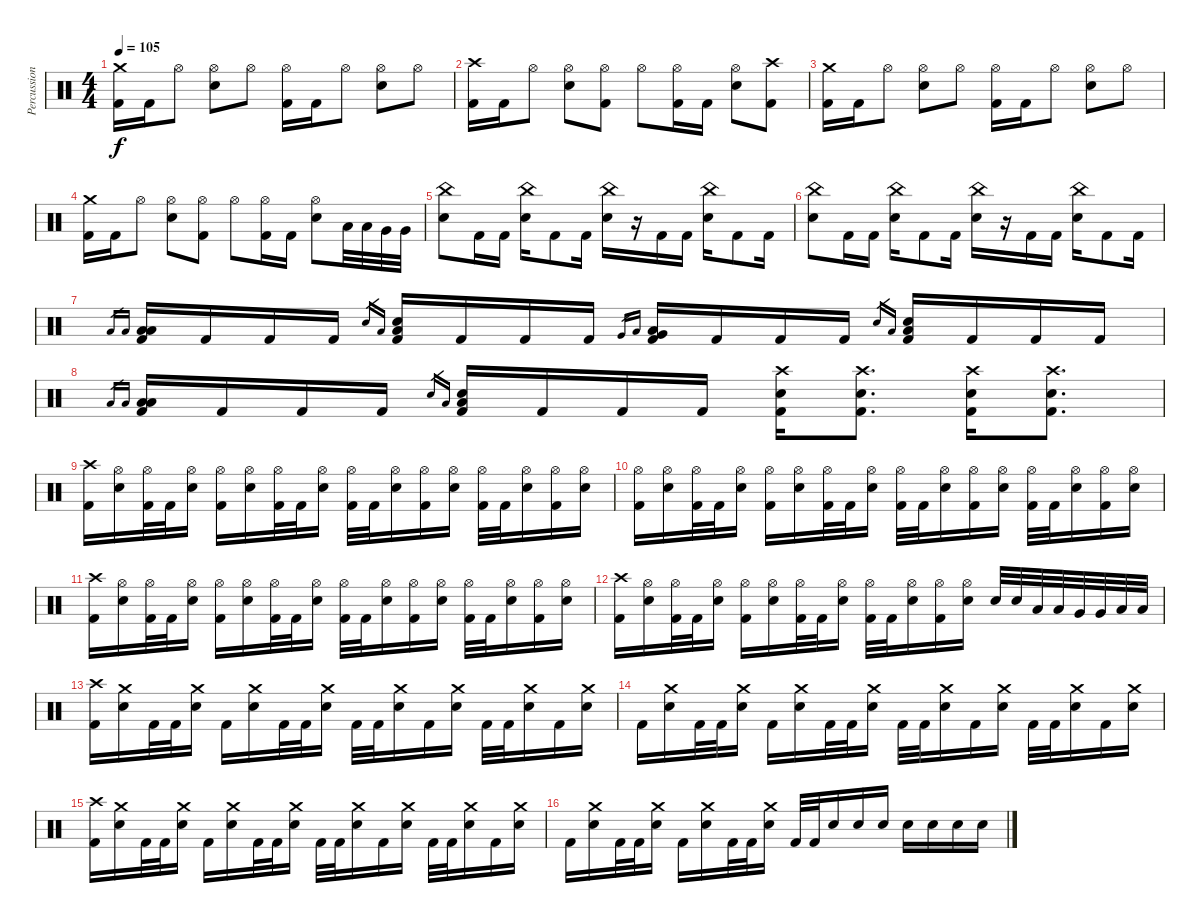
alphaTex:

\track ("Percussions" "Percussion") {instrument percussion}
\staff {score}
\articulation defaults
\ts (4 4)
\tempo 105
\clef neutral
\ks c
("Crash medium (hit)" "Kick (hit) 2").16{dy f} "Kick (hit) 2".16 "Hi-Hat (open)".8 ("Hi-Hat (open)" "Electric Snare (hit)").8 "Hi-Hat (open)".8 ("Hi-Hat (open)" "Kick (hit) 2").16 "Kick (hit) 2".16 "Hi-Hat (open)".8 ("Hi-Hat (open)" "Electric Snare (hit)").8 "Hi-Hat (open)".8 |
("Crash high (hit)" "Kick (hit) 2").16 "Kick (hit) 2".16 "Hi-Hat (open)".8 ("Hi-Hat (open)" "Electric Snare (hit)").8 ("Hi-Hat (open)" "Kick (hit) 2").8 "Hi-Hat (open)".8 ("Hi-Hat (open)" "Kick (hit) 2").16 "Kick (hit) 2".16 ("Hi-Hat (open)" "Electric Snare (hit)").8 ("Crash high (hit)" "Kick (hit) 2").8 |
("Crash medium (hit)" "Kick (hit) 2").16 "Kick (hit) 2".16 "Hi-Hat (open)".8 ("Hi-Hat (open)" "Electric Snare (hit)").8 "Hi-Hat (open)".8 ("Hi-Hat (open)" "Kick (hit) 2").16 "Kick (hit) 2".16 "Hi-Hat (open)".8 ("Hi-Hat (open)" "Electric Snare (hit)").8 "Hi-Hat (open)".8 |
("Crash medium (hit)" "Kick (hit) 2").16 "Kick (hit) 2".16 "Hi-Hat (open)".8 ("Hi-Hat (open)" "Electric Snare (hit)").8 ("Hi-Hat (open)" "Kick (hit) 2").8 "Hi-Hat (open)".8 ("Hi-Hat (open)" "Kick (hit) 2").16 "Kick (hit) 2".16 ("Hi-Hat (open)" "Electric Snare (hit)").8 "Low Tom (hit)".32 "Low Tom (hit)".32 "Very Low Tom (hit)".32 "Very Low Tom (hit)".32 |
("China (hit)" "Electric Snare (hit)").8 "Kick (hit) 2".16 "Kick (hit) 2".16 ("China (hit)" "Electric Snare (hit)").16 "Kick (hit) 2".8 "Kick (hit) 2".16 ("China (hit)" "Electric Snare (hit)").16 r.16 "Kick (hit) 2".16 "Kick (hit) 2".16 ("China (hit)" "Electric Snare (hit)").16 "Kick (hit) 2".8 "Kick (hit) 2".16 |
("China (hit)" "Electric Snare (hit)").8 "Kick (hit) 2".16 "Kick (hit) 2".16 ("China (hit)" "Electric Snare (hit)").16 "Kick (hit) 2".8 "Kick (hit) 2".16 ("China (hit)" "Electric Snare (hit)").16 r.16 "Kick (hit) 2".16 "Kick (hit) 2".16 ("China (hit)" "Electric Snare (hit)").16 "Kick (hit) 2".8 "Kick (hit) 2".16 |
"Low Tom (hit)".16{gr} "Low Floor Tom (hit)".16{gr} ("Low Tom (hit)" "Low Floor Tom (hit)" "Kick (hit) 2").16 "Kick (hit) 2".16 "Kick (hit) 2".16 "Kick (hit) 2".16 "Electric Snare (hit)".16{gr} "Low Floor Tom (hit)".16{gr} ("Electric Snare (hit)" "Low Floor Tom (hit)" "Kick (hit) 2").16 "Kick (hit) 2".16 "Kick (hit) 2".16 "Kick (hit) 2".16 "Very Low Tom (hit)".16{gr} "Low Floor Tom (hit)".16{gr} ("Very Low Tom (hit)" "Low Floor Tom (hit)" "Kick (hit) 2").16 "Kick (hit) 2".16 "Kick (hit) 2".16 "Kick (hit) 2".16 "Electric Snare (hit)".16{gr} "Low Floor Tom (hit)".16{gr} ("Electric Snare (hit)" "Low Floor Tom (hit)" "Kick (hit) 2").16 "Kick (hit) 2".16 "Kick (hit) 2".16 "Kick (hit) 2".16 |
"Low Tom (hit)".16{gr} "Low Floor Tom (hit)".16{gr} ("Low Tom (hit)" "Low Floor Tom (hit)" "Kick (hit) 2").16 "Kick (hit) 2".16 "Kick (hit) 2".16 "Kick (hit) 2".16 "Electric Snare (hit)".16{gr} "Low Floor Tom (hit)".16{gr} ("Electric Snare (hit)" "Low Floor Tom (hit)" "Kick (hit) 2").16 "Kick (hit) 2".16 "Kick (hit) 2".16 "Kick (hit) 2".16 ("Crash high (hit)" "Electric Snare (hit)" "Kick (hit) 2").16 ("Crash high (hit)" "Electric Snare (hit)" "Kick (hit) 2").8{d} ("Crash high (hit)" "Electric Snare (hit)" "Kick (hit) 2").16 ("Crash high (hit)" "Electric Snare (hit)" "Kick (hit) 2").8{d} |
("Crash high (hit)" "Kick (hit) 2").16 ("Hi-Hat (open)" "Electric Snare (hit)").16 ("Hi-Hat (open)" "Kick (hit) 2").32 "Kick (hit) 2".32 ("Hi-Hat (open)" "Electric Snare (hit)").16 ("Hi-Hat (open)" "Kick (hit) 2").16 ("Hi-Hat (open)" "Electric Snare (hit)").16 ("Hi-Hat (open)" "Kick (hit) 2").32 "Kick (hit) 2".32 ("Hi-Hat (open)" "Electric Snare (hit)").16 ("Hi-Hat (open)" "Kick (hit) 2").32 "Kick (hit) 2".32 ("Hi-Hat (open)" "Electric Snare (hit)").16 ("Hi-Hat (open)" "Kick (hit) 2").16 ("Hi-Hat (open)" "Electric Snare (hit)").16 ("Hi-Hat (open)" "Kick (hit) 2").32 "Kick (hit) 2".32 ("Hi-Hat (open)" "Electric Snare (hit)").16 ("Hi-Hat (open)" "Kick (hit) 2").16 ("Hi-Hat (open)" "Electric Snare (hit)").16 |
("Hi-Hat (open)" "Kick (hit) 2").16 ("Hi-Hat (open)" "Electric Snare (hit)").16 ("Hi-Hat (open)" "Kick (hit) 2").32 "Kick (hit) 2".32 ("Hi-Hat (open)" "Electric Snare (hit)").16 ("Hi-Hat (open)" "Kick (hit) 2").16 ("Hi-Hat (open)" "Electric Snare (hit)").16 ("Hi-Hat (open)" "Kick (hit) 2").32 "Kick (hit) 2".32 ("Hi-Hat (open)" "Electric Snare (hit)").16 ("Hi-Hat (open)" "Kick (hit) 2").32 "Kick (hit) 2".32 ("Hi-Hat (open)" "Electric Snare (hit)").16 ("Hi-Hat (open)" "Kick (hit) 2").16 ("Hi-Hat (open)" "Electric Snare (hit)").16 ("Hi-Hat (open)" "Kick (hit) 2").32 "Kick (hit) 2".32 ("Hi-Hat (open)" "Electric Snare (hit)").16 ("Hi-Hat (open)" "Kick (hit) 2").16 ("Hi-Hat (open)" "Electric Snare (hit)").16 |
("Crash high (hit)" "Kick (hit) 2").16 ("Hi-Hat (open)" "Electric Snare (hit)").16 ("Hi-Hat (open)" "Kick (hit) 2").32 "Kick (hit) 2".32 ("Hi-Hat (open)" "Electric Snare (hit)").16 ("Hi-Hat (open)" "Kick (hit) 2").16 ("Hi-Hat (open)" "Electric Snare (hit)").16 ("Hi-Hat (open)" "Kick (hit) 2").32 "Kick (hit) 2".32 ("Hi-Hat (open)" "Electric Snare (hit)").16 ("Hi-Hat (open)" "Kick (hit) 2").32 "Kick (hit) 2".32 ("Hi-Hat (open)" "Electric Snare (hit)").16 ("Hi-Hat (open)" "Kick (hit) 2").16 ("Hi-Hat (open)" "Electric Snare (hit)").16 ("Hi-Hat (open)" "Kick (hit) 2").32 "Kick (hit) 2".32 ("Hi-Hat (open)" "Electric Snare (hit)").16 ("Hi-Hat (open)" "Kick (hit) 2").16 ("Hi-Hat (open)" "Electric Snare (hit)").16 |
("Crash high (hit)" "Kick (hit) 2").16 ("Hi-Hat (open)" "Electric Snare (hit)").16 ("Hi-Hat (open)" "Kick (hit) 2").32 "Kick (hit) 2".32 ("Hi-Hat (open)" "Electric Snare (hit)").16 ("Hi-Hat (open)" "Kick (hit) 2").16 ("Hi-Hat (open)" "Electric Snare (hit)").16 ("Hi-Hat (open)" "Kick (hit) 2").32 "Kick (hit) 2".32 ("Hi-Hat (open)" "Electric Snare (hit)").16 ("Hi-Hat (open)" "Kick (hit) 2").32 "Kick (hit) 2".32 ("Hi-Hat (open)" "Electric Snare (hit)").16 ("Hi-Hat (open)" "Kick (hit) 2").16 ("Hi-Hat (open)" "Electric Snare (hit)").16 "Electric Snare (hit)".32 "Electric Snare (hit)".32 "Low Tom (hit)".32 "Low Tom (hit)".32 "Very Low Tom (hit)".32 "Very Low Tom (hit)".32 "Low Floor Tom (hit)".32 "Low Floor Tom (hit)".32 |
("Crash high (hit)" "Kick (hit) 2").16 ("Crash medium (hit)" "Electric Snare (hit)").16 "Kick (hit) 2".32 "Kick (hit) 2".32 ("Crash medium (hit)" "Electric Snare (hit)").16 "Kick (hit) 2".16 ("Crash medium (hit)" "Electric Snare (hit)").16 "Kick (hit) 2".32 "Kick (hit) 2".32 ("Crash medium (hit)" "Electric Snare (hit)").16 "Kick (hit) 2".32 "Kick (hit) 2".32 ("Crash medium (hit)" "Electric Snare (hit)").16 "Kick (hit) 2".16 ("Crash medium (hit)" "Electric Snare (hit)").16 "Kick (hit) 2".32 "Kick (hit) 2".32 ("Crash medium (hit)" "Electric Snare (hit)").16 "Kick (hit) 2".16 ("Crash medium (hit)" "Electric Snare (hit)").16 |
"Kick (hit) 2".16 ("Crash medium (hit)" "Electric Snare (hit)").16 "Kick (hit) 2".32 "Kick (hit) 2".32 ("Crash medium (hit)" "Electric Snare (hit)").16 "Kick (hit) 2".16 ("Crash medium (hit)" "Electric Snare (hit)").16 "Kick (hit) 2".32 "Kick (hit) 2".32 ("Crash medium (hit)" "Electric Snare (hit)").16 "Kick (hit) 2".32 "Kick (hit) 2".32 ("Crash medium (hit)" "Electric Snare (hit)").16 "Kick (hit) 2".16 ("Crash medium (hit)" "Electric Snare (hit)").16 "Kick (hit) 2".32 "Kick (hit) 2".32 ("Crash medium (hit)" "Electric Snare (hit)").16 "Kick (hit) 2".16 ("Crash medium (hit)" "Electric Snare (hit)").16 |
("Crash high (hit)" "Kick (hit) 2").16 ("Crash medium (hit)" "Electric Snare (hit)").16 "Kick (hit) 2".32 "Kick (hit) 2".32 ("Crash medium (hit)" "Electric Snare (hit)").16 "Kick (hit) 2".16 ("Crash medium (hit)" "Electric Snare (hit)").16 "Kick (hit) 2".32 "Kick (hit) 2".32 ("Crash medium (hit)" "Electric Snare (hit)").16 "Kick (hit) 2".32 "Kick (hit) 2".32 ("Crash medium (hit)" "Electric Snare (hit)").16 "Kick (hit) 2".16 ("Crash medium (hit)" "Electric Snare (hit)").16 "Kick (hit) 2".32 "Kick (hit) 2".32 ("Crash medium (hit)" "Electric Snare (hit)").16 "Kick (hit) 2".16 ("Crash medium (hit)" "Electric Snare (hit)").16 |
"Kick (hit) 2".16 ("Crash medium (hit)" "Electric Snare (hit)").16 "Kick (hit) 2".32 "Kick (hit) 2".32 ("Crash medium (hit)" "Electric Snare (hit)").16 "Kick (hit) 2".16 ("Crash medium (hit)" "Electric Snare (hit)").16 "Kick (hit) 2".32 "Kick (hit) 2".32 ("Crash medium (hit)" "Electric Snare (hit)").16 "Kick (hit) 2".32 "Kick (hit) 2".32 "Electric Snare (hit)".16 "Electric Snare (hit)".16 "Electric Snare (hit)".16 "Electric Snare (hit)".16 "Electric Snare (hit)".16 "Electric Snare (hit)".16 "Electric Snare (hit)".16
